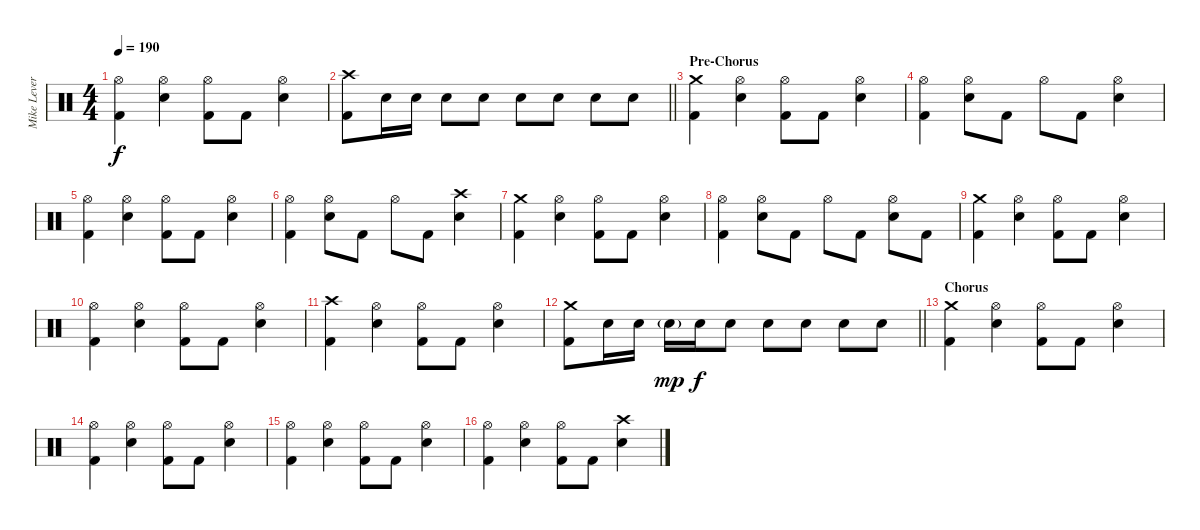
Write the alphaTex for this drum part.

\track ("Mike Leverence - Drums" "Mike Lever") {instrument percussion}
\staff {score}
\articulation defaults
\ts (4 4)
\tempo 190
\clef neutral
\ks c
("Hi-Hat (open)" "Kick (hit) 2").4{dy f} ("Hi-Hat (open)" "Electric Snare (hit)").4 ("Hi-Hat (open)" "Kick (hit) 2").8 "Kick (hit) 2".8 ("Hi-Hat (open)" "Electric Snare (hit)").4 |
\barLineRight lightlight
("Crash high (hit)" "Kick (hit) 2").8 "Electric Snare (hit)".16 "Electric Snare (hit)".16 "Electric Snare (hit)".8 "Electric Snare (hit)".8 "Electric Snare (hit)".8 "Electric Snare (hit)".8 "Electric Snare (hit)".8 "Electric Snare (hit)".8 |
\section ("" "Pre-Chorus")
("Crash medium (hit)" "Kick (hit) 2").4 ("Hi-Hat (open)" "Electric Snare (hit)").4 ("Hi-Hat (open)" "Kick (hit) 2").8 "Kick (hit) 2".8 ("Hi-Hat (open)" "Electric Snare (hit)").4 |
("Hi-Hat (open)" "Kick (hit) 2").4 ("Hi-Hat (open)" "Electric Snare (hit)").8 "Kick (hit) 2".8 "Hi-Hat (open)".8 "Kick (hit) 2".8 ("Hi-Hat (open)" "Electric Snare (hit)").4 |
("Hi-Hat (open)" "Kick (hit) 2").4 ("Hi-Hat (open)" "Electric Snare (hit)").4 ("Hi-Hat (open)" "Kick (hit) 2").8 "Kick (hit) 2".8 ("Hi-Hat (open)" "Electric Snare (hit)").4 |
("Hi-Hat (open)" "Kick (hit) 2").4 ("Hi-Hat (open)" "Electric Snare (hit)").8 "Kick (hit) 2".8 "Hi-Hat (open)".8 "Kick (hit) 2".8 ("Crash high (hit)" "Electric Snare (hit)").4 |
("Crash medium (hit)" "Kick (hit) 2").4 ("Hi-Hat (open)" "Electric Snare (hit)").4 ("Hi-Hat (open)" "Kick (hit) 2").8 "Kick (hit) 2".8 ("Hi-Hat (open)" "Electric Snare (hit)").4 |
("Hi-Hat (open)" "Kick (hit) 2").4 ("Hi-Hat (open)" "Electric Snare (hit)").8 "Kick (hit) 2".8 "Hi-Hat (open)".8 "Kick (hit) 2".8 ("Hi-Hat (open)" "Electric Snare (hit)").8 "Kick (hit) 2".8 |
("Crash medium (hit)" "Kick (hit) 2").4 ("Hi-Hat (open)" "Electric Snare (hit)").4 ("Hi-Hat (open)" "Kick (hit) 2").8 "Kick (hit) 2".8 ("Hi-Hat (open)" "Electric Snare (hit)").4 |
("Hi-Hat (open)" "Kick (hit) 2").4 ("Hi-Hat (open)" "Electric Snare (hit)").4 ("Hi-Hat (open)" "Kick (hit) 2").8 "Kick (hit) 2".8 ("Hi-Hat (open)" "Electric Snare (hit)").4 |
("Crash high (hit)" "Kick (hit) 2").4 ("Hi-Hat (open)" "Electric Snare (hit)").4 ("Hi-Hat (open)" "Kick (hit) 2").8 "Kick (hit) 2".8 ("Hi-Hat (open)" "Electric Snare (hit)").4 |
\barLineRight lightlight
("Crash medium (hit)" "Kick (hit) 2").8 "Electric Snare (hit)".16 "Electric Snare (hit)".16 "Electric Snare (hit)"{g}.16{dy mp} "Electric Snare (hit)".16{dy f} "Electric Snare (hit)".8 "Electric Snare (hit)".8 "Electric Snare (hit)".8 "Electric Snare (hit)".8 "Electric Snare (hit)".8 |
\section ("" "Chorus")
("Crash medium (hit)" "Kick (hit) 2").4 ("Hi-Hat (open)" "Electric Snare (hit)").4 ("Hi-Hat (open)" "Kick (hit) 2").8 "Kick (hit) 2".8 ("Hi-Hat (open)" "Electric Snare (hit)").4 |
("Hi-Hat (open)" "Kick (hit) 2").4 ("Hi-Hat (open)" "Electric Snare (hit)").4 ("Hi-Hat (open)" "Kick (hit) 2").8 "Kick (hit) 2".8 ("Hi-Hat (open)" "Electric Snare (hit)").4 |
("Hi-Hat (open)" "Kick (hit) 2").4 ("Hi-Hat (open)" "Electric Snare (hit)").4 ("Hi-Hat (open)" "Kick (hit) 2").8 "Kick (hit) 2".8 ("Hi-Hat (open)" "Electric Snare (hit)").4 |
("Hi-Hat (open)" "Kick (hit) 2").4 ("Hi-Hat (open)" "Electric Snare (hit)").4 ("Hi-Hat (open)" "Kick (hit) 2").8 "Kick (hit) 2".8 ("Crash high (hit)" "Electric Snare (hit)").4
